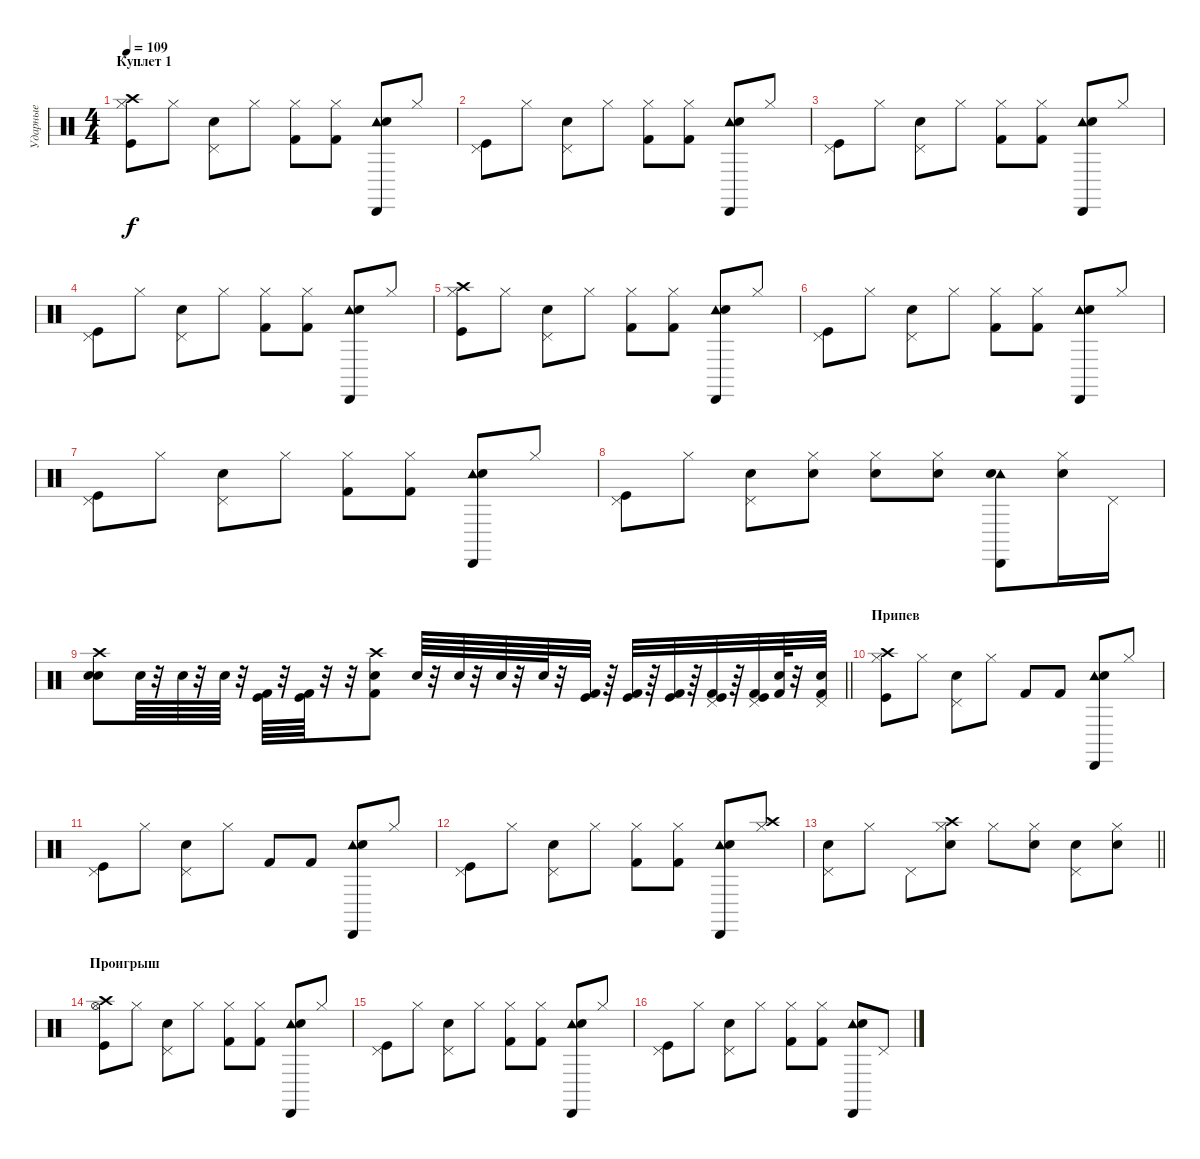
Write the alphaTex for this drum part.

\track ("Ударные" "Ударные") {instrument percussion}
\staff {score}
\articulation defaults
\ts (4 4)
\section ("" "Куплет 1")
\tempo 109
\clef neutral
\ks c
("Hi-Hat (closed)" "Crash high (hit)" "Kick (hit)").8{dy f} "Hi-Hat (closed)".8 ("Pedal Hi-Hat (hit)" "Snare (hit) 2").8 "Hi-Hat (closed)".8 ("Hi-Hat (closed)" "Kick (hit) 2").8 ("Hi-Hat (closed)" "Kick (hit) 2").8 ("Tambourine (hit)" "Cabasa (hit)" "Snare (hit) 2").8 "Hi-Hat (closed)".8 |
("Pedal Hi-Hat (hit)" "Kick (hit)").8 "Hi-Hat (closed)".8 ("Pedal Hi-Hat (hit)" "Snare (hit) 2").8 "Hi-Hat (closed)".8 ("Hi-Hat (closed)" "Kick (hit) 2").8 ("Hi-Hat (closed)" "Kick (hit) 2").8 ("Tambourine (hit)" "Cabasa (hit)" "Snare (hit) 2").8 "Hi-Hat (closed)".8 |
("Pedal Hi-Hat (hit)" "Kick (hit)").8 "Hi-Hat (closed)".8 ("Pedal Hi-Hat (hit)" "Snare (hit) 2").8 "Hi-Hat (closed)".8 ("Hi-Hat (closed)" "Kick (hit) 2").8 ("Hi-Hat (closed)" "Kick (hit) 2").8 ("Tambourine (hit)" "Cabasa (hit)" "Snare (hit) 2").8 "Hi-Hat (closed)".8 |
("Pedal Hi-Hat (hit)" "Kick (hit)").8 "Hi-Hat (closed)".8 ("Pedal Hi-Hat (hit)" "Snare (hit) 2").8 "Hi-Hat (closed)".8 ("Hi-Hat (closed)" "Kick (hit) 2").8 ("Hi-Hat (closed)" "Kick (hit) 2").8 ("Tambourine (hit)" "Cabasa (hit)" "Snare (hit) 2").8 "Hi-Hat (closed)".8 |
("Hi-Hat (closed)" "Crash high (hit)" "Kick (hit)").8 "Hi-Hat (closed)".8 ("Pedal Hi-Hat (hit)" "Snare (hit) 2").8 "Hi-Hat (closed)".8 ("Hi-Hat (closed)" "Kick (hit) 2").8 ("Hi-Hat (closed)" "Kick (hit) 2").8 ("Tambourine (hit)" "Cabasa (hit)" "Snare (hit) 2").8 "Hi-Hat (closed)".8 |
("Pedal Hi-Hat (hit)" "Kick (hit)").8 "Hi-Hat (closed)".8 ("Pedal Hi-Hat (hit)" "Snare (hit) 2").8 "Hi-Hat (closed)".8 ("Hi-Hat (closed)" "Kick (hit) 2").8 ("Hi-Hat (closed)" "Kick (hit) 2").8 ("Tambourine (hit)" "Cabasa (hit)" "Snare (hit) 2").8 "Hi-Hat (closed)".8 |
("Pedal Hi-Hat (hit)" "Kick (hit)").8 "Hi-Hat (closed)".8 ("Pedal Hi-Hat (hit)" "Snare (hit) 2").8 "Hi-Hat (closed)".8 ("Hi-Hat (closed)" "Kick (hit) 2").8 ("Hi-Hat (closed)" "Kick (hit) 2").8 ("Tambourine (hit)" "Cabasa (hit)" "Snare (hit) 2").8 "Hi-Hat (closed)".8 |
("Pedal Hi-Hat (hit)" "Kick (hit)").8 "Hi-Hat (closed)".8 ("Pedal Hi-Hat (hit)" "Snare (hit) 2").8 ("Hi-Hat (closed)" "Snare (hit) 2").8 ("Hi-Hat (closed)" "Snare (hit) 2").8 ("Hi-Hat (closed)" "Snare (hit) 2").8 ("Tambourine (hit)" "Cabasa (hit)" "Electric Snare (hit)").8 ("Hi-Hat (closed)" "Electric Snare (hit)").16 "Pedal Hi-Hat (hit)".16 |
\barLineRight lightlight
("Crash high (hit)" "Electric Snare (hit)" "Snare (hit) 2").8 "Electric Snare (hit)".64{volume 7} r.32 "Electric Snare (hit)".64 r.32 "Electric Snare (hit)".64 r.32 ("Kick (hit)" "Kick (hit) 2").64 r.32 ("Kick (hit)" "Kick (hit) 2").64 r.32 r.32 ("Crash high (hit)" "Kick (hit) 2" "Snare (hit) 2").8{volume 10} "Electric Snare (hit)".64{volume 7 balance 5} r.32 "Electric Snare (hit)".64 r.32 "Electric Snare (hit)".64 r.32 "Electric Snare (hit)".64 r.32 ("Kick (hit)" "Kick (hit) 2").32 r.64 ("Kick (hit)" "Kick (hit) 2").32 r.64 ("Kick (hit)" "Kick (hit) 2").32 r.64 ("Pedal Hi-Hat (hit)" "Kick (hit)" "Kick (hit) 2").32 r.64 ("Pedal Hi-Hat (hit)" "Kick (hit)" "Kick (hit) 2").32 ("Electric Snare (hit)" "Kick (hit) 2").64 r.32 ("Pedal Hi-Hat (hit)" "Electric Snare (hit)" "Kick (hit) 2").32 |
\section ("" "Припев")
("Hi-Hat (closed)" "Crash high (hit)" "Kick (hit)").8{volume 10} "Hi-Hat (closed)".8 ("Pedal Hi-Hat (hit)" "Snare (hit) 2").8 "Hi-Hat (closed)".8 "Kick (hit) 2".8 "Kick (hit) 2".8 ("Tambourine (hit)" "Cabasa (hit)" "Snare (hit) 2").8 "Hi-Hat (closed)".8 |
("Pedal Hi-Hat (hit)" "Kick (hit)").8 "Hi-Hat (closed)".8 ("Pedal Hi-Hat (hit)" "Snare (hit) 2").8 "Hi-Hat (closed)".8 "Kick (hit) 2".8 "Kick (hit) 2".8 ("Tambourine (hit)" "Cabasa (hit)" "Snare (hit) 2").8 "Hi-Hat (closed)".8 |
("Pedal Hi-Hat (hit)" "Kick (hit)").8 "Hi-Hat (closed)".8 ("Pedal Hi-Hat (hit)" "Snare (hit) 2").8 "Hi-Hat (closed)".8 ("Hi-Hat (closed)" "Kick (hit) 2").8 ("Hi-Hat (closed)" "Kick (hit) 2").8 ("Tambourine (hit)" "Cabasa (hit)" "Snare (hit) 2").8 ("Hi-Hat (closed)" "Crash high (hit)").8 |
\barLineRight lightlight
("Pedal Hi-Hat (hit)" "Snare (hit) 2").8 "Hi-Hat (closed)".8 "Pedal Hi-Hat (hit)".8 ("Hi-Hat (closed)" "Crash high (hit)" "Snare (hit) 2").8 "Hi-Hat (closed)".8 ("Hi-Hat (closed)" "Snare (hit) 2").8 ("Pedal Hi-Hat (hit)" "Snare (hit) 2").8 ("Hi-Hat (closed)" "Snare (hit) 2").8 |
\section ("" "Проигрыш")
("Hi-Hat (open)" "Crash high (hit)" "Kick (hit)").8 "Hi-Hat (closed)".8 ("Pedal Hi-Hat (hit)" "Snare (hit) 2").8 "Hi-Hat (closed)".8 ("Hi-Hat (closed)" "Kick (hit) 2").8 ("Hi-Hat (closed)" "Kick (hit) 2").8 ("Tambourine (hit)" "Cabasa (hit)" "Snare (hit) 2").8 "Hi-Hat (closed)".8 |
("Pedal Hi-Hat (hit)" "Kick (hit)").8 "Hi-Hat (closed)".8 ("Pedal Hi-Hat (hit)" "Snare (hit) 2").8 "Hi-Hat (closed)".8 ("Hi-Hat (closed)" "Kick (hit) 2").8 ("Hi-Hat (closed)" "Kick (hit) 2").8 ("Tambourine (hit)" "Cabasa (hit)" "Snare (hit) 2").8 "Hi-Hat (closed)".8 |
("Pedal Hi-Hat (hit)" "Kick (hit)").8 "Hi-Hat (closed)".8 ("Pedal Hi-Hat (hit)" "Snare (hit) 2").8 "Hi-Hat (closed)".8 ("Hi-Hat (closed)" "Kick (hit) 2").8 ("Hi-Hat (closed)" "Kick (hit) 2").8 ("Tambourine (hit)" "Cabasa (hit)" "Snare (hit) 2").8 "Pedal Hi-Hat (hit)".8
